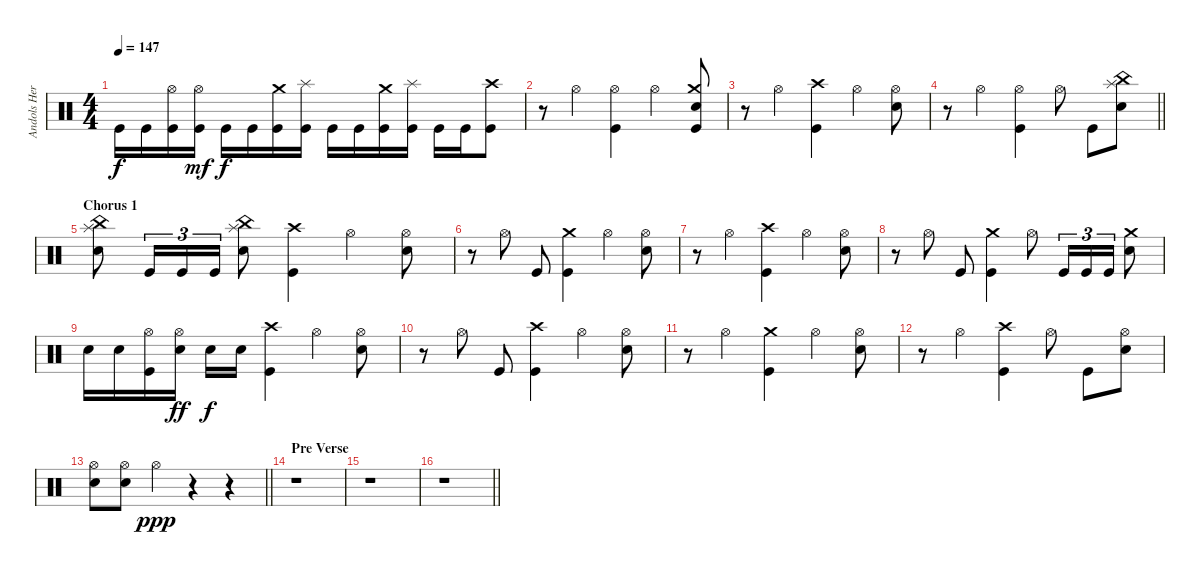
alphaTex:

\track ("Andols Herrick" "Andols Her") {instrument percussion}
\staff
\articulation defaults
\ts (4 4)
\tempo 147
\clef neutral
\ks c "Kick (hit)".16{dy f} "Kick (hit)".16
("Hi-Hat (open)" "Kick (hit)").16 ("Hi-Hat (open)" "Kick (hit)").16{dy mf} "Kick (hit)".16{dy f} "Kick (hit)".16 ("Crash medium (hit)" "Kick (hit)").16 ("Splash (hit)" "Kick (hit)").16 "Kick (hit)".16 "Kick (hit)".16 ("Crash medium (hit)" "Kick (hit)").16 ("Splash (hit)" "Kick (hit)").16 "Kick (hit)".16 "Kick (hit)".16 ("Crash high (hit)" "Kick (hit)").8 |
r.8 "Hi-Hat (open)".4 ("Hi-Hat (open)" "Kick (hit)").4 "Hi-Hat (open)".4 ("Crash medium (hit)" "Electric Snare (hit)" "Kick (hit)").8 |
r.8 "Hi-Hat (open)".4 ("Crash high (hit)" "Kick (hit)").4 "Hi-Hat (open)".4 ("Hi-Hat (open)" "Electric Snare (hit)").8 |
\barLineRight lightlight
r.8 "Hi-Hat (open)".4 ("Hi-Hat (open)" "Kick (hit)").4 "Hi-Hat (open)".8 "Kick (hit)".8 ("China (hit)" "Splash (hit)" "Electric Snare (hit)").8 |
\section ("" "Chorus 1")
("China (hit)" "Splash (hit)" "Electric Snare (hit)").8 "Kick (hit)".16{tu (3 2)} "Kick (hit)".16{tu (3 2)} "Kick (hit)".16{tu (3 2)} ("China (hit)" "Splash (hit)" "Electric Snare (hit)").8 ("Crash high (hit)" "Kick (hit)").4 "Hi-Hat (open)".4 ("Hi-Hat (open)" "Electric Snare (hit)").8 |
r.8 "Hi-Hat (open)".8 "Kick (hit)".8 ("Crash medium (hit)" "Kick (hit)").4 "Hi-Hat (open)".4 ("Hi-Hat (open)" "Electric Snare (hit)").8 |
r.8 "Hi-Hat (open)".4 ("Crash high (hit)" "Kick (hit)").4 "Hi-Hat (open)".4 ("Hi-Hat (open)" "Electric Snare (hit)").8 |
r.8 "Hi-Hat (open)".8 "Kick (hit)".8 ("Crash medium (hit)" "Kick (hit)").4 "Hi-Hat (open)".8 "Kick (hit)".16{tu (3 2)} "Kick (hit)".16{tu (3 2)} "Kick (hit)".16{tu (3 2)} ("Crash medium (hit)" "Electric Snare (hit)").8 |
"Electric Snare (hit)".16 "Electric Snare (hit)".16 ("Hi-Hat (open)" "Kick (hit)").16 ("Hi-Hat (open)" "Electric Snare (hit)").16{dy ff} "Electric Snare (hit)".16{dy f} "Electric Snare (hit)".16 ("Crash high (hit)" "Kick (hit)").4 "Hi-Hat (open)".4 ("Hi-Hat (open)" "Electric Snare (hit)").8 |
r.8 "Hi-Hat (open)".8 "Kick (hit)".8 ("Crash high (hit)" "Kick (hit)").4 "Hi-Hat (open)".4 ("Hi-Hat (open)" "Electric Snare (hit)").8 |
r.8 "Hi-Hat (open)".4 ("Crash medium (hit)" "Kick (hit)").4 "Hi-Hat (open)".4 ("Hi-Hat (open)" "Electric Snare (hit)").8 |
r.8 "Hi-Hat (open)".4 ("Crash high (hit)" "Kick (hit)").4 "Hi-Hat (open)".8 "Kick (hit)".8 ("Hi-Hat (open)" "Electric Snare (hit)").8 |
\barLineRight lightlight
("Hi-Hat (open)" "Electric Snare (hit)").8 ("Hi-Hat (open)" "Electric Snare (hit)").8 "Hi-Hat (open)".4{dy ppp} r.4 r.4 |
\section ("" "Pre Verse")
r.1 |
r.1 |
\barLineRight lightlight
r.1
